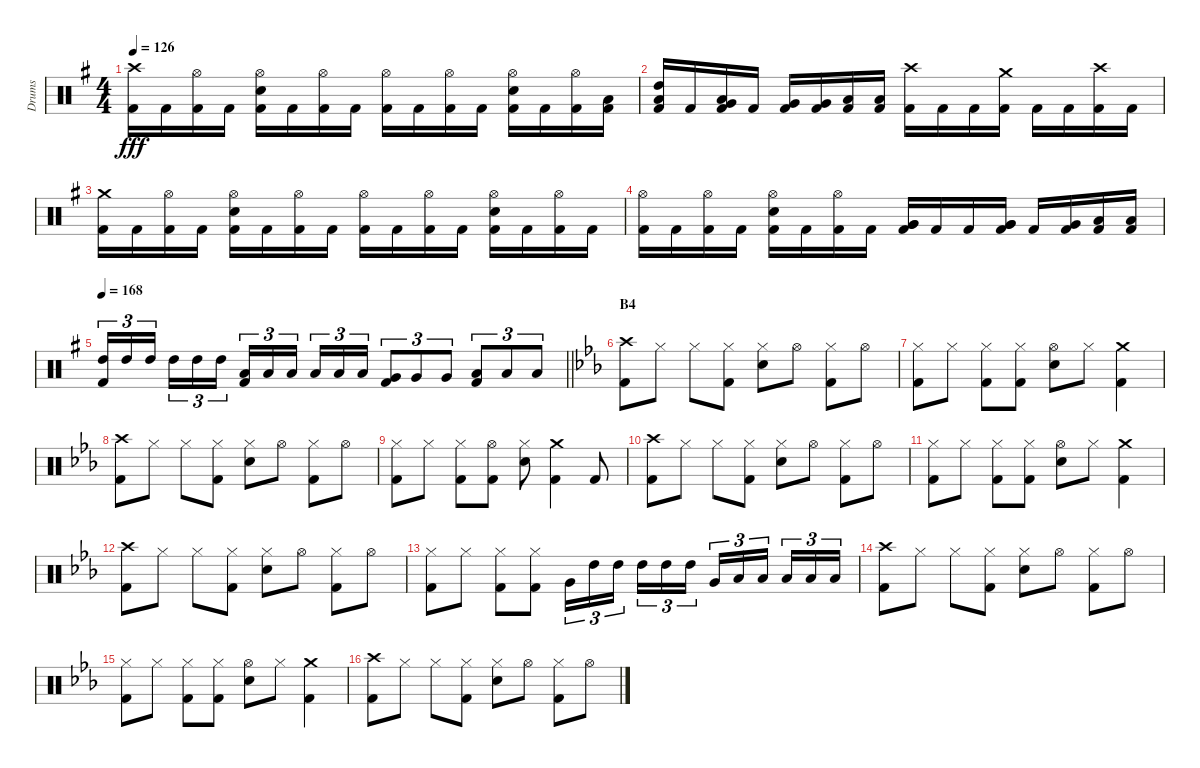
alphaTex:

\track ("Drums" "Drums") {instrument percussion}
\staff {score}
\articulation defaults
\ts (4 4)
\tempo 126
\clef neutral
\ks eminor
("Crash high (hit)" "Kick (hit) 2").16{dy fff} "Kick (hit) 2".16 ("Hi-Hat (open)" "Kick (hit) 2").16 "Kick (hit) 2".16 ("Hi-Hat (open)" "Snare (hit) 2" "Kick (hit) 2").16 "Kick (hit) 2".16 ("Hi-Hat (open)" "Kick (hit) 2").16 "Kick (hit) 2".16 ("Hi-Hat (open)" "Kick (hit) 2").16 "Kick (hit) 2".16 ("Hi-Hat (open)" "Kick (hit) 2").16 "Kick (hit) 2".16 ("Hi-Hat (open)" "Snare (hit) 2" "Kick (hit) 2").16 "Kick (hit) 2".16 ("Hi-Hat (open)" "Kick (hit) 2").16 ("Kick (hit) 2" "Low Tom (hit)").16 |
("Kick (hit) 2" "High Tom (hit)" "Low Tom (hit)").16 "Kick (hit) 2".16 ("Kick (hit) 2" "Very Low Tom (hit)" "Low Tom (hit)").16 "Kick (hit) 2".16 ("Kick (hit) 2" "Very Low Tom (hit)").16 ("Kick (hit) 2" "Very Low Tom (hit)").16 ("Kick (hit) 2" "Low Floor Tom (hit)").16 ("Kick (hit) 2" "Low Floor Tom (hit)").16 ("Crash high (hit)" "Kick (hit) 2").16 "Kick (hit) 2".16 "Kick (hit) 2".16 ("Crash medium (hit)" "Kick (hit) 2").16 "Kick (hit) 2".16 "Kick (hit) 2".16 ("Crash high (hit)" "Kick (hit) 2").16 "Kick (hit) 2".16 |
("Crash medium (hit)" "Kick (hit) 2").16 "Kick (hit) 2".16 ("Hi-Hat (open)" "Kick (hit) 2").16 "Kick (hit) 2".16 ("Hi-Hat (open)" "Snare (hit) 2" "Kick (hit) 2").16 "Kick (hit) 2".16 ("Hi-Hat (open)" "Kick (hit) 2").16 "Kick (hit) 2".16 ("Hi-Hat (open)" "Kick (hit) 2").16 "Kick (hit) 2".16 ("Hi-Hat (open)" "Kick (hit) 2").16 "Kick (hit) 2".16 ("Snare (hit) 2" "Hi-Hat (open)" "Kick (hit) 2").16 "Kick (hit) 2".16 ("Hi-Hat (open)" "Kick (hit) 2").16 "Kick (hit) 2".16 |
("Hi-Hat (open)" "Kick (hit) 2").16 "Kick (hit) 2".16 ("Hi-Hat (open)" "Kick (hit) 2").16 "Kick (hit) 2".16 ("Snare (hit) 2" "Hi-Hat (open)" "Kick (hit) 2").16 "Kick (hit) 2".16 ("Hi-Hat (open)" "Kick (hit) 2").16 "Kick (hit) 2".16 ("Kick (hit) 2" "Very Low Tom (hit)" "Very Low Tom (hit)").16 "Kick (hit) 2".16 "Kick (hit) 2".16 ("Kick (hit) 2" "Very Low Tom (hit)" "Very Low Tom (hit)").16 "Kick (hit) 2".16 ("Kick (hit) 2" "Very Low Tom (hit)").16 ("Kick (hit) 2" "Low Floor Tom (hit)").16 ("Kick (hit) 2" "Low Floor Tom (hit)").16 |
\tempo 168
\barLineRight lightlight
("Kick (hit) 2" "High Tom (hit)").16{tu (3 2)} "High Tom (hit)".16{tu (3 2)} "High Tom (hit)".16{tu (3 2) beam splitsecondary} "High Tom (hit)".16{tu (3 2)} "High Tom (hit)".16{tu (3 2)} "High Tom (hit)".16{tu (3 2)} ("Kick (hit) 2" "Low Tom (hit)").16{tu (3 2)} "Low Tom (hit)".16{tu (3 2)} "Low Tom (hit)".16{tu (3 2) beam splitsecondary} "Low Tom (hit)".16{tu (3 2)} "Low Tom (hit)".16{tu (3 2)} "Low Tom (hit)".16{tu (3 2)} ("Kick (hit) 2" "Very Low Tom (hit)").8{tu (3 2)} "Very Low Tom (hit)".8{tu (3 2)} "Very Low Tom (hit)".8{tu (3 2)} ("Kick (hit) 2" "Low Floor Tom (hit)").8{tu (3 2)} "Low Floor Tom (hit)".8{tu (3 2)} "Low Floor Tom (hit)".8{tu (3 2)} |
\section ("" "B4")
\ks cminor
("Crash high (hit)" "Kick (hit) 2").8 "Hi-Hat (closed)".8 "Hi-Hat (closed)".8 ("Hi-Hat (closed)" "Kick (hit) 2").8 ("Hi-Hat (closed)" "Snare (hit) 2").8 "Hi-Hat (open)".8 ("Hi-Hat (closed)" "Kick (hit) 2").8 "Hi-Hat (open)".8 |
("Hi-Hat (closed)" "Kick (hit) 2").8 "Hi-Hat (closed)".8 ("Hi-Hat (closed)" "Kick (hit) 2").8 ("Hi-Hat (closed)" "Kick (hit) 2").8 ("Snare (hit) 2" "Hi-Hat (open)").8 "Hi-Hat (closed)".8 ("Crash medium (hit)" "Kick (hit) 2").4 |
("Crash high (hit)" "Kick (hit) 2").8 "Hi-Hat (closed)".8 "Hi-Hat (closed)".8 ("Hi-Hat (closed)" "Kick (hit) 2").8 ("Snare (hit) 2" "Hi-Hat (closed)").8 "Hi-Hat (open)".8 ("Hi-Hat (closed)" "Kick (hit) 2").8 "Hi-Hat (open)".8 |
("Hi-Hat (closed)" "Kick (hit) 2").8 "Hi-Hat (closed)".8 ("Hi-Hat (closed)" "Kick (hit) 2").8 ("Hi-Hat (open)" "Kick (hit) 2").8 ("Hi-Hat (closed)" "Snare (hit) 2").8 ("Crash medium (hit)" "Kick (hit) 2").4 "Kick (hit) 2".8 |
("Crash high (hit)" "Kick (hit) 2").8 "Hi-Hat (closed)".8 "Hi-Hat (closed)".8 ("Hi-Hat (closed)" "Kick (hit) 2").8 ("Hi-Hat (closed)" "Snare (hit) 2").8 "Hi-Hat (open)".8 ("Hi-Hat (closed)" "Kick (hit) 2").8 "Hi-Hat (open)".8 |
("Hi-Hat (closed)" "Kick (hit) 2").8 "Hi-Hat (closed)".8 ("Hi-Hat (closed)" "Kick (hit) 2").8 ("Hi-Hat (closed)" "Kick (hit) 2").8 ("Hi-Hat (open)" "Snare (hit) 2").8 "Hi-Hat (closed)".8 ("Crash medium (hit)" "Kick (hit) 2").4 |
("Crash high (hit)" "Kick (hit) 2").8 "Hi-Hat (closed)".8 "Hi-Hat (closed)".8 ("Hi-Hat (closed)" "Kick (hit) 2").8 ("Hi-Hat (closed)" "Snare (hit) 2").8 "Hi-Hat (open)".8 ("Hi-Hat (closed)" "Kick (hit) 2").8 "Hi-Hat (open)".8 |
("Hi-Hat (closed)" "Kick (hit) 2").8 "Hi-Hat (closed)".8 ("Hi-Hat (closed)" "Kick (hit) 2").8 ("Hi-Hat (closed)" "Kick (hit) 2").8 "Very Low Tom (hit)".16{tu (3 2)} "High Tom (hit)".16{tu (3 2)} "High Tom (hit)".16{tu (3 2) beam splitsecondary} "High Tom (hit)".16{tu (3 2)} "High Tom (hit)".16{tu (3 2)} "High Tom (hit)".16{tu (3 2)} "Very Low Tom (hit)".16{tu (3 2)} "Low Tom (hit)".16{tu (3 2)} "Low Tom (hit)".16{tu (3 2) beam splitsecondary} "Low Tom (hit)".16{tu (3 2)} "Low Tom (hit)".16{tu (3 2)} "Low Tom (hit)".16{tu (3 2)} |
("Crash high (hit)" "Kick (hit) 2").8 "Hi-Hat (closed)".8 "Hi-Hat (closed)".8 ("Hi-Hat (closed)" "Kick (hit) 2").8 ("Snare (hit) 2" "Hi-Hat (closed)").8 "Hi-Hat (open)".8 ("Hi-Hat (closed)" "Kick (hit) 2").8 "Hi-Hat (open)".8 |
("Hi-Hat (closed)" "Kick (hit) 2").8 "Hi-Hat (closed)".8 ("Hi-Hat (closed)" "Kick (hit) 2").8 ("Hi-Hat (closed)" "Kick (hit) 2").8 ("Hi-Hat (open)" "Snare (hit) 2").8 "Hi-Hat (closed)".8 ("Crash medium (hit)" "Kick (hit) 2").4 |
("Crash high (hit)" "Kick (hit) 2").8 "Hi-Hat (closed)".8 "Hi-Hat (closed)".8 ("Hi-Hat (closed)" "Kick (hit) 2").8 ("Hi-Hat (closed)" "Snare (hit) 2").8 "Hi-Hat (open)".8 ("Hi-Hat (closed)" "Kick (hit) 2").8 "Hi-Hat (open)".8
